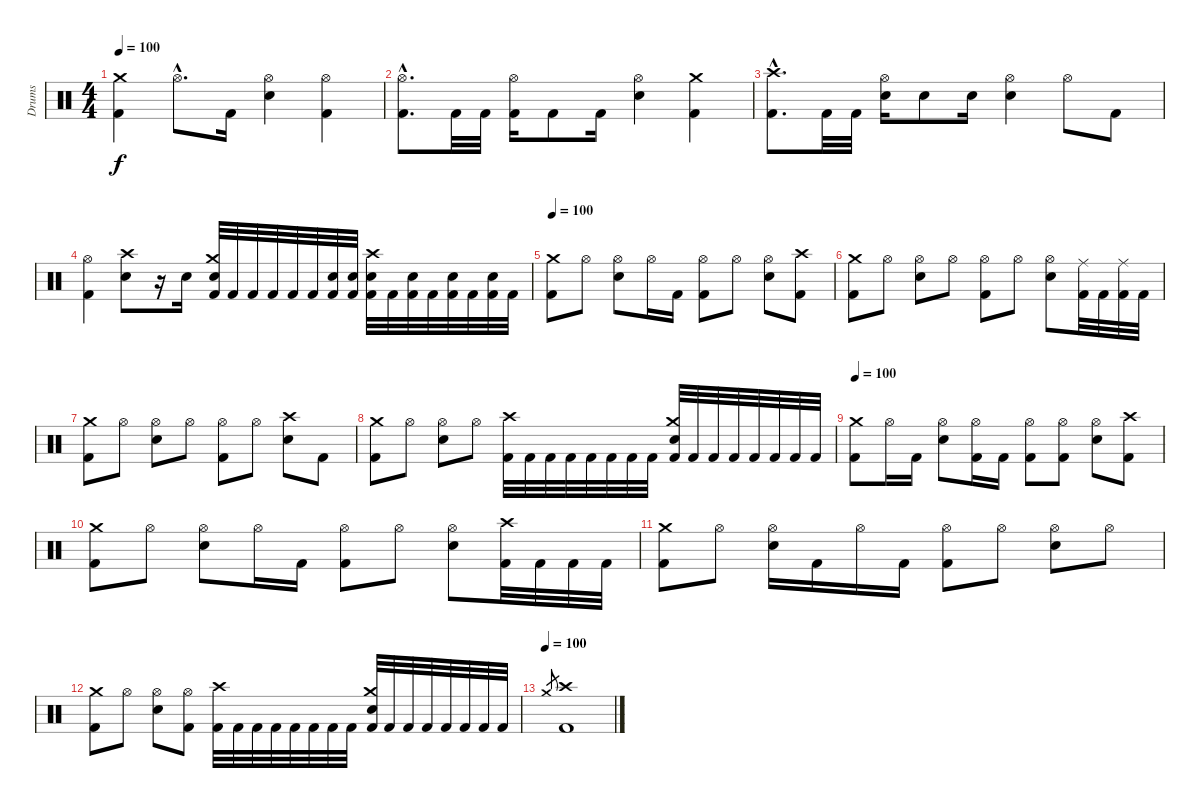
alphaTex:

\track ("Drums" "Drums") {instrument percussion}
\staff {score}
\articulation defaults
\ts (4 4)
\tempo 100
\clef neutral
\ks c
("Kick (hit) 2" "Crash medium (hit)").4{dy f} "Hi-Hat (open)"{hac}.8{d} "Kick (hit) 2".16 ("Electric Snare (hit)" "Hi-Hat (open)").4 ("Kick (hit) 2" "Hi-Hat (open)").4 |
("Kick (hit) 2"{hac} "Hi-Hat (open)"{hac}).8{d} "Kick (hit) 2".32 "Kick (hit) 2".32 ("Kick (hit) 2" "Hi-Hat (open)").16 "Kick (hit) 2".8 "Kick (hit) 2".16 ("Electric Snare (hit)" "Hi-Hat (open)").4 ("Kick (hit) 2" "Crash medium (hit)").4 |
("Kick (hit) 2"{hac} "Crash high (hit)"{hac}).8{d} "Kick (hit) 2".32 "Kick (hit) 2".32 ("Electric Snare (hit)" "Hi-Hat (open)").16 "Electric Snare (hit)".8 "Electric Snare (hit)".16 ("Electric Snare (hit)" "Hi-Hat (open)").4 "Hi-Hat (open)".8 "Kick (hit) 2".8 |
("Kick (hit) 2" "Hi-Hat (open)").4 ("Electric Snare (hit)" "Crash high (hit)").8 r.16 "Electric Snare (hit)".16 ("Kick (hit) 2" "Electric Snare (hit)" "Crash medium (hit)").32 "Kick (hit) 2".32 "Kick (hit) 2".32 "Kick (hit) 2".32 "Kick (hit) 2".32 "Kick (hit) 2".32 ("Kick (hit) 2" "Electric Snare (hit)").32 ("Kick (hit) 2" "Electric Snare (hit)").32 ("Kick (hit) 2" "Electric Snare (hit)" "Crash high (hit)").32 "Kick (hit) 2".32 ("Kick (hit) 2" "Electric Snare (hit)").32 "Kick (hit) 2".32 ("Kick (hit) 2" "Electric Snare (hit)").32 "Kick (hit) 2".32 ("Kick (hit) 2" "Electric Snare (hit)").32 "Kick (hit) 2".32 |
\tempo 100
("Kick (hit) 2" "Crash medium (hit)").8 "Hi-Hat (open)".8 ("Electric Snare (hit)" "Hi-Hat (open)").8 "Hi-Hat (open)".16 "Kick (hit) 2".16 ("Kick (hit) 2" "Hi-Hat (open)").8 "Hi-Hat (open)".8 ("Electric Snare (hit)" "Hi-Hat (open)").8 ("Kick (hit) 2" "Crash high (hit)").8 |
("Kick (hit) 2" "Crash medium (hit)").8 "Hi-Hat (open)".8 ("Electric Snare (hit)" "Hi-Hat (open)").8 "Hi-Hat (open)".8 ("Kick (hit) 2" "Hi-Hat (open)").8 "Hi-Hat (open)".8 ("Electric Snare (hit)" "Hi-Hat (open)").8 ("Kick (hit) 2" "Ride (middle)").32 "Kick (hit) 2".32 ("Kick (hit) 2" "Ride (middle)").32 "Kick (hit) 2".32 |
("Kick (hit) 2" "Crash medium (hit)").8 "Hi-Hat (open)".8 ("Electric Snare (hit)" "Hi-Hat (open)").8 "Hi-Hat (open)".8 ("Kick (hit) 2" "Hi-Hat (open)").8 "Hi-Hat (open)".8 ("Electric Snare (hit)" "Crash high (hit)").8 "Kick (hit) 2".8 |
("Kick (hit) 2" "Crash medium (hit)").8 "Hi-Hat (open)".8 ("Electric Snare (hit)" "Hi-Hat (open)").8 "Hi-Hat (open)".8 ("Kick (hit) 2" "Crash high (hit)").32 "Kick (hit) 2".32 "Kick (hit) 2".32 "Kick (hit) 2".32 "Kick (hit) 2".32 "Kick (hit) 2".32 "Kick (hit) 2".32 "Kick (hit) 2".32 ("Kick (hit) 2" "Electric Snare (hit)" "Crash medium (hit)").32 "Kick (hit) 2".32 "Kick (hit) 2".32 "Kick (hit) 2".32 "Kick (hit) 2".32 "Kick (hit) 2".32 "Kick (hit) 2".32 "Kick (hit) 2".32 |
\tempo 100
("Kick (hit) 2" "Crash medium (hit)").8 "Hi-Hat (open)".16 "Kick (hit) 2".16 ("Electric Snare (hit)" "Hi-Hat (open)").8 ("Kick (hit) 2" "Hi-Hat (open)").16 "Kick (hit) 2".16 ("Kick (hit) 2" "Hi-Hat (open)").8 ("Kick (hit) 2" "Hi-Hat (open)").8 ("Electric Snare (hit)" "Hi-Hat (open)").8 ("Kick (hit) 2" "Crash high (hit)").8 |
("Kick (hit) 2" "Crash medium (hit)").8 "Hi-Hat (open)".8 ("Electric Snare (hit)" "Hi-Hat (open)").8 "Hi-Hat (open)".16 "Kick (hit) 2".16 ("Kick (hit) 2" "Hi-Hat (open)").8 "Hi-Hat (open)".8 ("Electric Snare (hit)" "Hi-Hat (open)").8 ("Kick (hit) 2" "Crash high (hit)").32 "Kick (hit) 2".32 "Kick (hit) 2".32 "Kick (hit) 2".32 |
("Kick (hit) 2" "Crash medium (hit)").8 "Hi-Hat (open)".8 ("Electric Snare (hit)" "Hi-Hat (open)").16 "Kick (hit) 2".16 "Hi-Hat (open)".16 "Kick (hit) 2".16 ("Kick (hit) 2" "Hi-Hat (open)").8 "Hi-Hat (open)".8 ("Electric Snare (hit)" "Hi-Hat (open)").8 "Hi-Hat (open)".8 |
("Kick (hit) 2" "Crash medium (hit)").8 "Hi-Hat (open)".8 ("Electric Snare (hit)" "Hi-Hat (open)").8 ("Kick (hit) 2" "Hi-Hat (open)").8 ("Kick (hit) 2" "Crash high (hit)").32 "Kick (hit) 2".32 "Kick (hit) 2".32 "Kick (hit) 2".32 "Kick (hit) 2".32 "Kick (hit) 2".32 "Kick (hit) 2".32 "Kick (hit) 2".32 ("Kick (hit) 2" "Electric Snare (hit)" "Crash medium (hit)").32 "Kick (hit) 2".32 "Kick (hit) 2".32 "Kick (hit) 2".32 "Kick (hit) 2".32 "Kick (hit) 2".32 "Kick (hit) 2".32 "Kick (hit) 2".32 |
\tempo (100)
"Crash medium (hit)".8{gr} ("Kick (hit) 2" "Crash high (hit)").1
